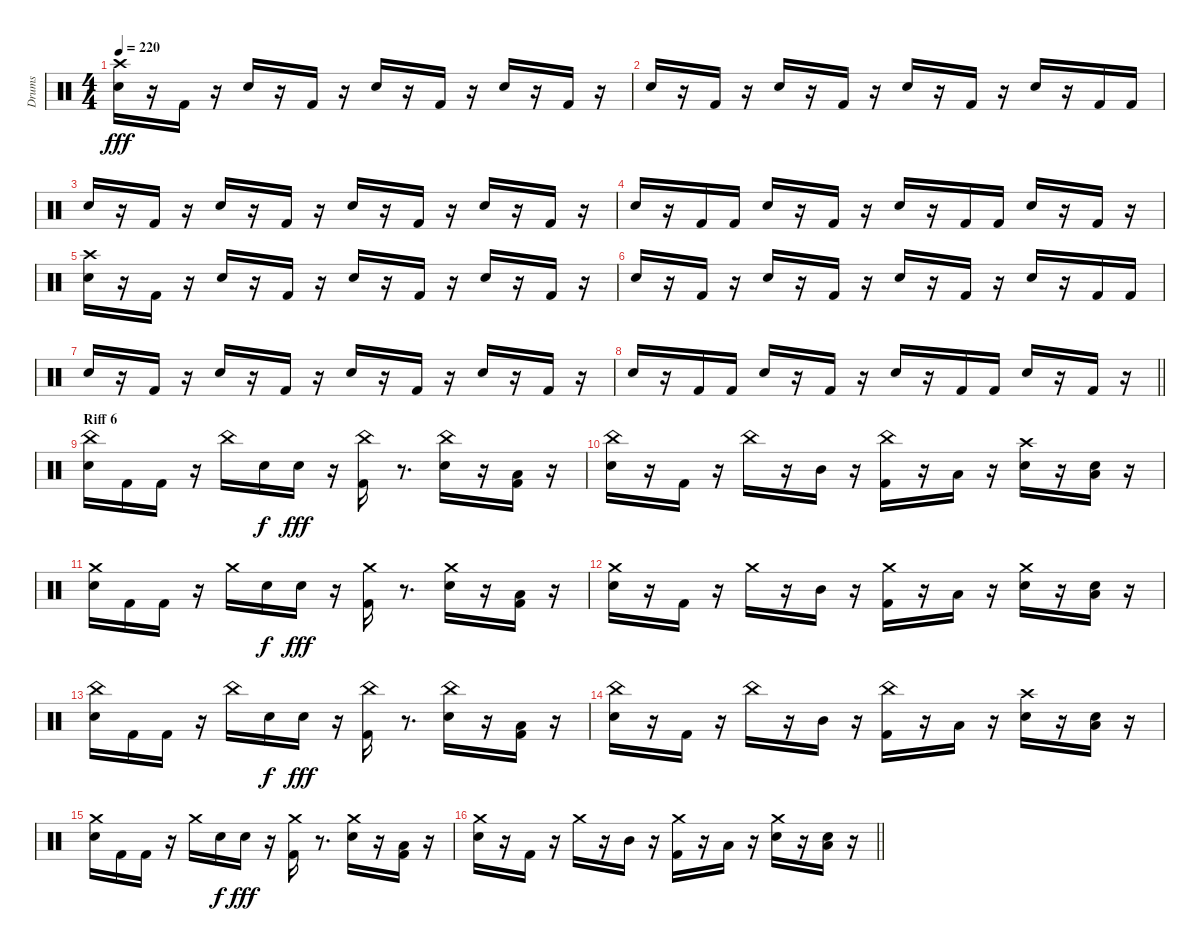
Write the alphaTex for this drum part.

\track ("Drums" "Drums") {instrument percussion}
\staff {score}
\articulation defaults
\ts (4 4)
\tempo 220
\clef neutral
\ks c
("Crash high (hit)" "Snare (hit) 2").16{dy fff} r.16 "Kick (hit) 2".16 r.16 "Snare (hit) 2".16 r.16 "Kick (hit) 2".16 r.16 "Snare (hit) 2".16 r.16 "Kick (hit) 2".16 r.16 "Snare (hit) 2".16 r.16 "Kick (hit) 2".16 r.16 |
"Snare (hit) 2".16 r.16 "Kick (hit) 2".16 r.16 "Snare (hit) 2".16 r.16 "Kick (hit) 2".16 r.16 "Snare (hit) 2".16 r.16 "Kick (hit) 2".16 r.16 "Snare (hit) 2".16 r.16 "Kick (hit) 2".16 "Kick (hit) 2".16 |
"Snare (hit) 2".16 r.16 "Kick (hit) 2".16 r.16 "Snare (hit) 2".16 r.16 "Kick (hit) 2".16 r.16 "Snare (hit) 2".16 r.16 "Kick (hit) 2".16 r.16 "Snare (hit) 2".16 r.16 "Kick (hit) 2".16 r.16 |
"Snare (hit) 2".16 r.16 "Kick (hit) 2".16 "Kick (hit) 2".16 "Snare (hit) 2".16 r.16 "Kick (hit) 2".16 r.16 "Snare (hit) 2".16 r.16 "Kick (hit) 2".16 "Kick (hit) 2".16 "Snare (hit) 2".16 r.16 "Kick (hit) 2".16 r.16 |
("Crash high (hit)" "Snare (hit) 2").16 r.16 "Kick (hit) 2".16 r.16 "Snare (hit) 2".16 r.16 "Kick (hit) 2".16 r.16 "Snare (hit) 2".16 r.16 "Kick (hit) 2".16 r.16 "Snare (hit) 2".16 r.16 "Kick (hit) 2".16 r.16 |
"Snare (hit) 2".16 r.16 "Kick (hit) 2".16 r.16 "Snare (hit) 2".16 r.16 "Kick (hit) 2".16 r.16 "Snare (hit) 2".16 r.16 "Kick (hit) 2".16 r.16 "Snare (hit) 2".16 r.16 "Kick (hit) 2".16 "Kick (hit) 2".16 |
"Snare (hit) 2".16 r.16 "Kick (hit) 2".16 r.16 "Snare (hit) 2".16 r.16 "Kick (hit) 2".16 r.16 "Snare (hit) 2".16 r.16 "Kick (hit) 2".16 r.16 "Snare (hit) 2".16 r.16 "Kick (hit) 2".16 r.16 |
\barLineRight lightlight "Snare (hit) 2".16
r.16 "Kick (hit) 2".16 "Kick (hit) 2".16 "Snare (hit) 2".16 r.16 "Kick (hit) 2".16 r.16 "Snare (hit) 2".16 r.16 "Kick (hit) 2".16 "Kick (hit) 2".16 "Snare (hit) 2".16 r.16 "Kick (hit) 2".16 r.16 |
\section ("" "Riff 6")
("China (hit)" "Snare (hit) 2").16 "Kick (hit) 2".16 "Kick (hit) 2".16 r.16 "China (hit)".16 "Snare (hit) 2".16{dy f} "Snare (hit) 2".16{dy fff} r.16 ("China (hit)" "Kick (hit) 2").16 r.8{d} ("China (hit)" "Snare (hit) 2").16 r.16 ("Kick (hit) 2" "Low Tom (hit)").16 r.16 |
("China (hit)" "Snare (hit) 2").16 r.16 "Kick (hit) 2".16 r.16 "China (hit)".16 r.16 "Mid Tom (hit)".16 r.16 ("China (hit)" "Kick (hit) 2").16 r.16 "Low Floor Tom (hit)".16 r.16 ("Crash high (hit)" "Snare (hit) 2").16 r.16 ("Snare (hit) 2" "Low Tom (hit)").16 r.16 |
("Crash medium (hit)" "Snare (hit) 2").16 "Kick (hit) 2".16 "Kick (hit) 2".16 r.16 "Crash medium (hit)".16 "Snare (hit) 2".16{dy f} "Snare (hit) 2".16{dy fff} r.16 ("Crash medium (hit)" "Kick (hit) 2").16 r.8{d} ("Crash medium (hit)" "Snare (hit) 2").16 r.16 ("Kick (hit) 2" "Low Tom (hit)").16 r.16 |
("Crash medium (hit)" "Snare (hit) 2").16 r.16 "Kick (hit) 2".16 r.16 "Crash medium (hit)".16 r.16 "Mid Tom (hit)".16 r.16 ("Crash medium (hit)" "Kick (hit) 2").16 r.16 "Low Floor Tom (hit)".16 r.16 ("Crash medium (hit)" "Snare (hit) 2").16 r.16 ("Snare (hit) 2" "Low Tom (hit)").16 r.16 |
("China (hit)" "Snare (hit) 2").16 "Kick (hit) 2".16 "Kick (hit) 2".16 r.16 "China (hit)".16 "Snare (hit) 2".16{dy f} "Snare (hit) 2".16{dy fff} r.16 ("China (hit)" "Kick (hit) 2").16 r.8{d} ("China (hit)" "Snare (hit) 2").16 r.16 ("Kick (hit) 2" "Low Tom (hit)").16 r.16 |
("China (hit)" "Snare (hit) 2").16 r.16 "Kick (hit) 2".16 r.16 "China (hit)".16 r.16 "Mid Tom (hit)".16 r.16 ("China (hit)" "Kick (hit) 2").16 r.16 "Low Floor Tom (hit)".16 r.16 ("Crash high (hit)" "Snare (hit) 2").16 r.16 ("Snare (hit) 2" "Low Tom (hit)").16 r.16 |
("Crash medium (hit)" "Snare (hit) 2").16 "Kick (hit) 2".16 "Kick (hit) 2".16 r.16 "Crash medium (hit)".16 "Snare (hit) 2".16{dy f} "Snare (hit) 2".16{dy fff} r.16 ("Crash medium (hit)" "Kick (hit) 2").16 r.8{d} ("Crash medium (hit)" "Snare (hit) 2").16 r.16 ("Kick (hit) 2" "Low Tom (hit)").16 r.16 |
\barLineRight lightlight
("Crash medium (hit)" "Snare (hit) 2").16 r.16 "Kick (hit) 2".16 r.16 "Crash medium (hit)".16 r.16 "Mid Tom (hit)".16 r.16 ("Crash medium (hit)" "Kick (hit) 2").16 r.16 "Low Floor Tom (hit)".16 r.16 ("Crash medium (hit)" "Snare (hit) 2").16 r.16 ("Snare (hit) 2" "Low Tom (hit)").16 r.16
